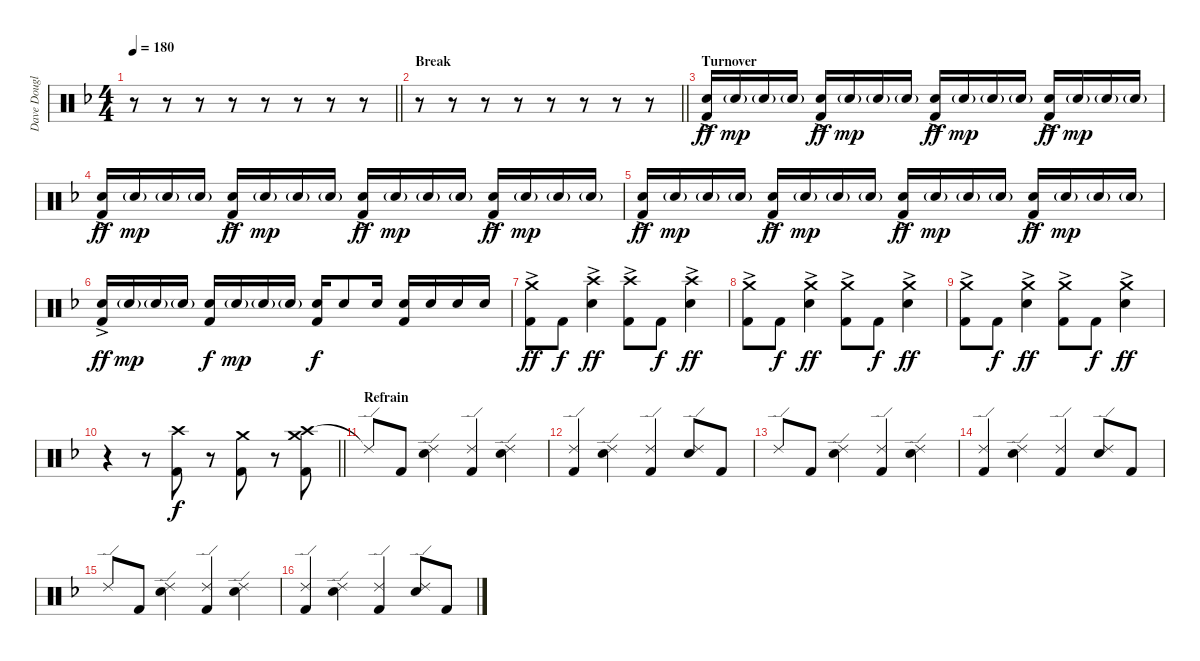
\track ("Dave Douglas (Drum)" "Dave Dougl") {instrument percussion}
\staff {score}
\articulation defaults
\ts (4 4)
\tempo 180
\clef neutral
\barLineRight lightlight
\ks dminor
r.8{dy f} r.8 r.8 r.8 r.8 r.8 r.8 r.8 |
\section ("" "Break")
\barLineRight lightlight
r.8 r.8 r.8 r.8 r.8 r.8 r.8 r.8{volume 2} |
\section ("" "Turnover")
("Snare (hit) 2"{ac} "Kick (hit) 2").16{dy ff volume 13} "Snare (hit) 2"{g}.16{dy mp} "Snare (hit) 2"{g}.16 "Snare (hit) 2"{g}.16 ("Snare (hit) 2"{ac} "Kick (hit) 2").16{dy ff} "Snare (hit) 2"{g}.16{dy mp} "Snare (hit) 2"{g}.16 "Snare (hit) 2"{g}.16 ("Snare (hit) 2"{ac} "Kick (hit) 2").16{dy ff} "Snare (hit) 2"{g}.16{dy mp} "Snare (hit) 2"{g}.16 "Snare (hit) 2"{g}.16 ("Snare (hit) 2"{ac} "Kick (hit) 2").16{dy ff} "Snare (hit) 2"{g}.16{dy mp} "Snare (hit) 2"{g}.16 "Snare (hit) 2"{g}.16 |
("Snare (hit) 2"{ac} "Kick (hit) 2").16{dy ff} "Snare (hit) 2"{g}.16{dy mp} "Snare (hit) 2"{g}.16 "Snare (hit) 2"{g}.16 ("Snare (hit) 2"{ac} "Kick (hit) 2").16{dy ff} "Snare (hit) 2"{g}.16{dy mp} "Snare (hit) 2"{g}.16 "Snare (hit) 2"{g}.16 ("Snare (hit) 2"{ac} "Kick (hit) 2").16{dy ff} "Snare (hit) 2"{g}.16{dy mp} "Snare (hit) 2"{g}.16 "Snare (hit) 2"{g}.16 ("Snare (hit) 2"{ac} "Kick (hit) 2").16{dy ff} "Snare (hit) 2"{g}.16{dy mp} "Snare (hit) 2"{g}.16 "Snare (hit) 2"{g}.16 |
("Snare (hit) 2"{ac} "Kick (hit) 2").16{dy ff} "Snare (hit) 2"{g}.16{dy mp} "Snare (hit) 2"{g}.16 "Snare (hit) 2"{g}.16 ("Snare (hit) 2"{ac} "Kick (hit) 2").16{dy ff} "Snare (hit) 2"{g}.16{dy mp} "Snare (hit) 2"{g}.16 "Snare (hit) 2"{g}.16 ("Snare (hit) 2"{ac} "Kick (hit) 2").16{dy ff} "Snare (hit) 2"{g}.16{dy mp} "Snare (hit) 2"{g}.16 "Snare (hit) 2"{g}.16 ("Snare (hit) 2"{ac} "Kick (hit) 2").16{dy ff} "Snare (hit) 2"{g}.16{dy mp} "Snare (hit) 2"{g}.16 "Snare (hit) 2"{g}.16 |
("Snare (hit) 2"{ac} "Kick (hit) 2").16{dy ff} "Snare (hit) 2"{g}.16{dy mp} "Snare (hit) 2"{g}.16 "Snare (hit) 2"{g}.16 ("Snare (hit) 2" "Kick (hit) 2").16{dy f} "Snare (hit) 2"{g}.16{dy mp} "Snare (hit) 2"{g}.16 "Snare (hit) 2"{g}.16 ("Snare (hit) 2" "Kick (hit) 2").16{dy f} "Snare (hit) 2".8 "Snare (hit) 2".16 ("Snare (hit) 2" "Kick (hit) 2").16 "Snare (hit) 2".16 "Snare (hit) 2".16 "Snare (hit) 2".16 |
("Crash medium (hit)"{ac} "Kick (hit) 2").8{dy ff} "Kick (hit) 2".8{dy f} ("Crash high (hit)"{ac} "Snare (hit) 2").4{dy ff} ("Crash high (hit)"{ac} "Kick (hit) 2").8 "Kick (hit) 2".8{dy f} ("Crash high (hit)"{ac} "Snare (hit) 2").4{dy ff} |
("Crash medium (hit)"{ac} "Kick (hit) 2").8 "Kick (hit) 2".8{dy f} ("Crash medium (hit)"{ac} "Snare (hit) 2").4{dy ff} ("Crash medium (hit)"{ac} "Kick (hit) 2").8 "Kick (hit) 2".8{dy f} ("Crash medium (hit)"{ac} "Snare (hit) 2").4{dy ff} |
("Crash medium (hit)"{ac} "Kick (hit) 2").8 "Kick (hit) 2".8{dy f} ("Crash medium (hit)"{ac} "Snare (hit) 2").4{dy ff} ("Crash medium (hit)"{ac} "Kick (hit) 2").8 "Kick (hit) 2".8{dy f} ("Crash medium (hit)"{ac} "Snare (hit) 2").4{dy ff} |
\barLineRight lightlight
r.4 r.8 ("Crash high (hit)" "Kick (hit) 2").8{dy f} r.8 ("Crash medium (hit)" "Kick (hit) 2").8 r.8 ("Crash high (hit)" "Crash medium (hit)" "Kick (hit) 2").8 |
\section ("" "Refrain")
"Ride (edge) 2"{t}.8 "Kick (hit) 2".8 ("Ride (edge) 2" "Snare (hit) 2").4 ("Ride (edge) 2" "Kick (hit) 2").4 ("Ride (edge) 2" "Snare (hit) 2").4 |
("Ride (edge) 2" "Kick (hit) 2").4 ("Ride (edge) 2" "Snare (hit) 2").4 ("Ride (edge) 2" "Kick (hit) 2").4 ("Ride (edge) 2" "Snare (hit) 2").8 "Kick (hit) 2".8 |
"Ride (edge) 2".8 "Kick (hit) 2".8 ("Ride (edge) 2" "Snare (hit) 2").4 ("Ride (edge) 2" "Kick (hit) 2").4 ("Ride (edge) 2" "Snare (hit) 2").4 |
("Ride (edge) 2" "Kick (hit) 2").4 ("Ride (edge) 2" "Snare (hit) 2").4 ("Ride (edge) 2" "Kick (hit) 2").4 ("Ride (edge) 2" "Snare (hit) 2").8 "Kick (hit) 2".8 |
"Ride (edge) 2".8 "Kick (hit) 2".8 ("Ride (edge) 2" "Snare (hit) 2").4 ("Ride (edge) 2" "Kick (hit) 2").4 ("Ride (edge) 2" "Snare (hit) 2").4 |
("Ride (edge) 2" "Kick (hit) 2").4 ("Ride (edge) 2" "Snare (hit) 2").4 ("Ride (edge) 2" "Kick (hit) 2").4 ("Ride (edge) 2" "Snare (hit) 2").8 "Kick (hit) 2".8
